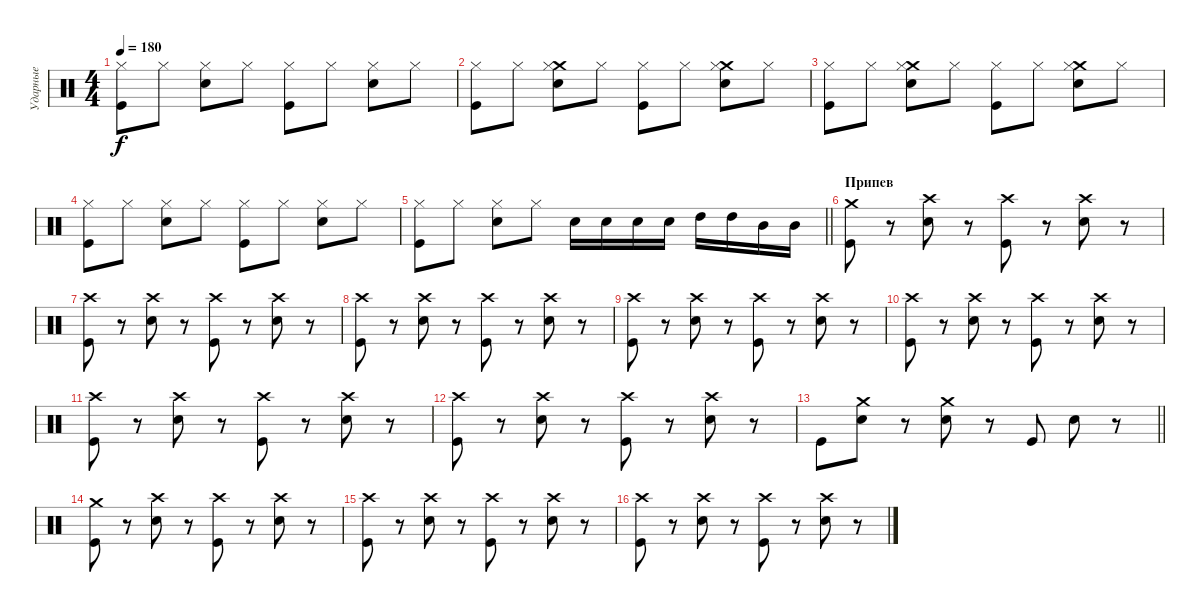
\track ("Ударные" "Ударные") {instrument percussion}
\staff {score}
\articulation defaults
\ts (4 4)
\tempo 180
\clef neutral
\ks c
("Hi-Hat (closed)" "Kick (hit)").8{dy f} "Hi-Hat (closed)".8 ("Hi-Hat (closed)" "Electric Snare (hit)").8 "Hi-Hat (closed)".8 ("Hi-Hat (closed)" "Kick (hit)").8 "Hi-Hat (closed)".8 ("Hi-Hat (closed)" "Electric Snare (hit)").8 "Hi-Hat (closed)".8 |
("Hi-Hat (closed)" "Kick (hit)").8 "Hi-Hat (closed)".8 ("Crash medium (hit)" "Hi-Hat (closed)" "Electric Snare (hit)").8 "Hi-Hat (closed)".8 ("Hi-Hat (closed)" "Kick (hit)").8 "Hi-Hat (closed)".8 ("Crash medium (hit)" "Hi-Hat (closed)" "Electric Snare (hit)").8 "Hi-Hat (closed)".8 |
("Hi-Hat (closed)" "Kick (hit)").8 "Hi-Hat (closed)".8 ("Crash medium (hit)" "Hi-Hat (closed)" "Electric Snare (hit)").8 "Hi-Hat (closed)".8 ("Hi-Hat (closed)" "Kick (hit)").8 "Hi-Hat (closed)".8 ("Crash medium (hit)" "Hi-Hat (closed)" "Electric Snare (hit)").8 "Hi-Hat (closed)".8 |
("Hi-Hat (closed)" "Kick (hit)").8 "Hi-Hat (closed)".8 ("Hi-Hat (closed)" "Electric Snare (hit)").8 "Hi-Hat (closed)".8 ("Hi-Hat (closed)" "Kick (hit)").8 "Hi-Hat (closed)".8 ("Hi-Hat (closed)" "Electric Snare (hit)").8 "Hi-Hat (closed)".8 |
\barLineRight lightlight
("Hi-Hat (closed)" "Kick (hit)").8 "Hi-Hat (closed)".8 ("Hi-Hat (closed)" "Electric Snare (hit)").8 "Hi-Hat (closed)".8 "Electric Snare (hit)".16 "Electric Snare (hit)".16 "Electric Snare (hit)".16 "Electric Snare (hit)".16 "High Tom (hit)".16 "High Tom (hit)".16 "Mid Tom (hit)".16 "Mid Tom (hit)".16 |
\section ("" "Припев")
("Crash medium (hit)" "Kick (hit)").8 r.8 ("Crash high (hit)" "Electric Snare (hit)").8 r.8 ("Crash high (hit)" "Kick (hit)").8 r.8 ("Crash high (hit)" "Electric Snare (hit)").8 r.8 |
("Crash high (hit)" "Kick (hit)").8 r.8 ("Crash high (hit)" "Electric Snare (hit)").8 r.8 ("Crash high (hit)" "Kick (hit)").8 r.8 ("Crash high (hit)" "Electric Snare (hit)").8 r.8 |
("Crash high (hit)" "Kick (hit)").8 r.8 ("Crash high (hit)" "Electric Snare (hit)").8 r.8 ("Crash high (hit)" "Kick (hit)").8 r.8 ("Crash high (hit)" "Electric Snare (hit)").8 r.8 |
("Crash high (hit)" "Kick (hit)").8 r.8 ("Crash high (hit)" "Electric Snare (hit)").8 r.8 ("Crash high (hit)" "Kick (hit)").8 r.8 ("Crash high (hit)" "Electric Snare (hit)").8 r.8 |
("Crash high (hit)" "Kick (hit)").8 r.8 ("Crash high (hit)" "Electric Snare (hit)").8 r.8 ("Crash high (hit)" "Kick (hit)").8 r.8 ("Crash high (hit)" "Electric Snare (hit)").8 r.8 |
("Crash high (hit)" "Kick (hit)").8 r.8 ("Crash high (hit)" "Electric Snare (hit)").8 r.8 ("Crash high (hit)" "Kick (hit)").8 r.8 ("Crash high (hit)" "Electric Snare (hit)").8 r.8 |
("Crash high (hit)" "Kick (hit)").8 r.8 ("Crash high (hit)" "Electric Snare (hit)").8 r.8 ("Crash high (hit)" "Kick (hit)").8 r.8 ("Crash high (hit)" "Electric Snare (hit)").8 r.8 |
\barLineRight lightlight "Kick (hit)".8
("Crash medium (hit)" "Electric Snare (hit)").8 r.8 ("Crash medium (hit)" "Electric Snare (hit)").8 r.8 "Kick (hit)".8 "Electric Snare (hit)".8 r.8 |
\section ("" " ")
("Crash medium (hit)" "Kick (hit)").8 r.8 ("Crash high (hit)" "Electric Snare (hit)").8 r.8 ("Crash high (hit)" "Kick (hit)").8 r.8 ("Crash high (hit)" "Electric Snare (hit)").8 r.8 |
("Crash high (hit)" "Kick (hit)").8 r.8 ("Crash high (hit)" "Electric Snare (hit)").8 r.8 ("Crash high (hit)" "Kick (hit)").8 r.8 ("Crash high (hit)" "Electric Snare (hit)").8 r.8 |
("Crash high (hit)" "Kick (hit)").8 r.8 ("Crash high (hit)" "Electric Snare (hit)").8 r.8 ("Crash high (hit)" "Kick (hit)").8 r.8 ("Crash high (hit)" "Electric Snare (hit)").8 r.8
